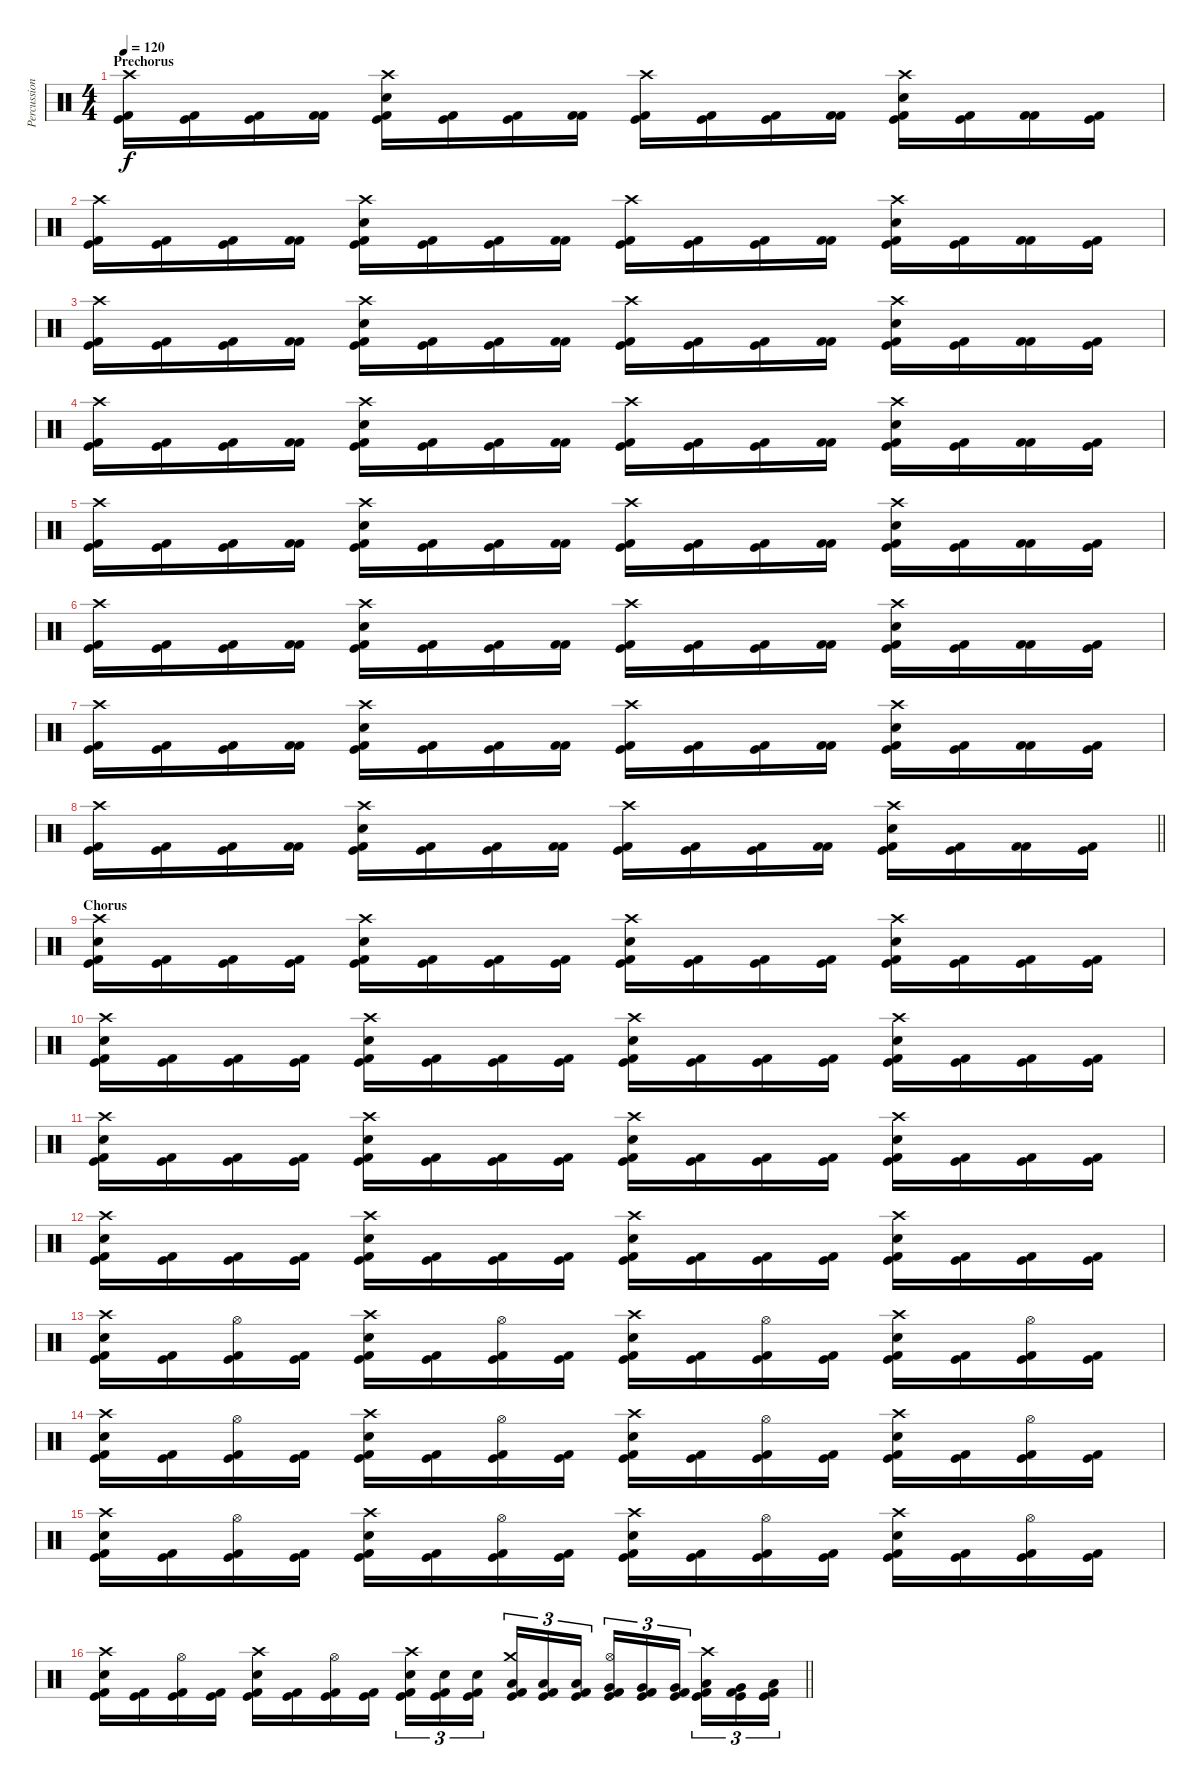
\track ("Percussion" "Percussion") {instrument percussion}
\staff {score}
\articulation defaults
\ts (4 4)
\section ("" "Prechorus")
\tempo 120
\clef neutral
\ks c
("Crash high (hit)" "Kick (hit) 2" "Kick (hit)").16{dy f} ("Kick (hit) 2" "Kick (hit)").16 ("Kick (hit) 2" "Kick (hit)").16 ("Kick (hit) 2" "Kick (hit) 2").16 ("Crash high (hit)" "Electric Snare (hit)" "Kick (hit) 2" "Kick (hit)").16 ("Kick (hit) 2" "Kick (hit)").16 ("Kick (hit) 2" "Kick (hit)").16 ("Kick (hit) 2" "Kick (hit) 2").16 ("Crash high (hit)" "Kick (hit) 2" "Kick (hit)").16 ("Kick (hit) 2" "Kick (hit)").16 ("Kick (hit) 2" "Kick (hit)").16 ("Kick (hit) 2" "Kick (hit) 2").16 ("Crash high (hit)" "Electric Snare (hit)" "Kick (hit) 2" "Kick (hit)").16 ("Kick (hit) 2" "Kick (hit)").16 ("Kick (hit) 2" "Kick (hit) 2").16 ("Kick (hit) 2" "Kick (hit)").16 |
("Crash high (hit)" "Kick (hit) 2" "Kick (hit)").16 ("Kick (hit) 2" "Kick (hit)").16 ("Kick (hit) 2" "Kick (hit)").16 ("Kick (hit) 2" "Kick (hit) 2").16 ("Crash high (hit)" "Electric Snare (hit)" "Kick (hit) 2" "Kick (hit)").16 ("Kick (hit) 2" "Kick (hit)").16 ("Kick (hit) 2" "Kick (hit)").16 ("Kick (hit) 2" "Kick (hit) 2").16 ("Crash high (hit)" "Kick (hit) 2" "Kick (hit)").16 ("Kick (hit) 2" "Kick (hit)").16 ("Kick (hit) 2" "Kick (hit)").16 ("Kick (hit) 2" "Kick (hit) 2").16 ("Crash high (hit)" "Electric Snare (hit)" "Kick (hit) 2" "Kick (hit)").16 ("Kick (hit) 2" "Kick (hit)").16 ("Kick (hit) 2" "Kick (hit) 2").16 ("Kick (hit) 2" "Kick (hit)").16 |
("Crash high (hit)" "Kick (hit) 2" "Kick (hit)").16 ("Kick (hit) 2" "Kick (hit)").16 ("Kick (hit) 2" "Kick (hit)").16 ("Kick (hit) 2" "Kick (hit) 2").16 ("Crash high (hit)" "Electric Snare (hit)" "Kick (hit) 2" "Kick (hit)").16 ("Kick (hit) 2" "Kick (hit)").16 ("Kick (hit) 2" "Kick (hit)").16 ("Kick (hit) 2" "Kick (hit) 2").16 ("Crash high (hit)" "Kick (hit) 2" "Kick (hit)").16 ("Kick (hit) 2" "Kick (hit)").16 ("Kick (hit) 2" "Kick (hit)").16 ("Kick (hit) 2" "Kick (hit) 2").16 ("Crash high (hit)" "Electric Snare (hit)" "Kick (hit) 2" "Kick (hit)").16 ("Kick (hit) 2" "Kick (hit)").16 ("Kick (hit) 2" "Kick (hit) 2").16 ("Kick (hit) 2" "Kick (hit)").16 |
("Crash high (hit)" "Kick (hit) 2" "Kick (hit)").16 ("Kick (hit) 2" "Kick (hit)").16 ("Kick (hit) 2" "Kick (hit)").16 ("Kick (hit) 2" "Kick (hit) 2").16 ("Crash high (hit)" "Electric Snare (hit)" "Kick (hit) 2" "Kick (hit)").16 ("Kick (hit) 2" "Kick (hit)").16 ("Kick (hit) 2" "Kick (hit)").16 ("Kick (hit) 2" "Kick (hit) 2").16 ("Crash high (hit)" "Kick (hit) 2" "Kick (hit)").16 ("Kick (hit) 2" "Kick (hit)").16 ("Kick (hit) 2" "Kick (hit)").16 ("Kick (hit) 2" "Kick (hit) 2").16 ("Crash high (hit)" "Electric Snare (hit)" "Kick (hit) 2" "Kick (hit)").16 ("Kick (hit) 2" "Kick (hit)").16 ("Kick (hit) 2" "Kick (hit) 2").16 ("Kick (hit) 2" "Kick (hit)").16 |
("Crash high (hit)" "Kick (hit) 2" "Kick (hit)").16 ("Kick (hit) 2" "Kick (hit)").16 ("Kick (hit) 2" "Kick (hit)").16 ("Kick (hit) 2" "Kick (hit) 2").16 ("Crash high (hit)" "Electric Snare (hit)" "Kick (hit) 2" "Kick (hit)").16 ("Kick (hit) 2" "Kick (hit)").16 ("Kick (hit) 2" "Kick (hit)").16 ("Kick (hit) 2" "Kick (hit) 2").16 ("Crash high (hit)" "Kick (hit) 2" "Kick (hit)").16 ("Kick (hit) 2" "Kick (hit)").16 ("Kick (hit) 2" "Kick (hit)").16 ("Kick (hit) 2" "Kick (hit) 2").16 ("Crash high (hit)" "Electric Snare (hit)" "Kick (hit) 2" "Kick (hit)").16 ("Kick (hit) 2" "Kick (hit)").16 ("Kick (hit) 2" "Kick (hit) 2").16 ("Kick (hit) 2" "Kick (hit)").16 |
("Crash high (hit)" "Kick (hit) 2" "Kick (hit)").16 ("Kick (hit) 2" "Kick (hit)").16 ("Kick (hit) 2" "Kick (hit)").16 ("Kick (hit) 2" "Kick (hit) 2").16 ("Crash high (hit)" "Electric Snare (hit)" "Kick (hit) 2" "Kick (hit)").16 ("Kick (hit) 2" "Kick (hit)").16 ("Kick (hit) 2" "Kick (hit)").16 ("Kick (hit) 2" "Kick (hit) 2").16 ("Crash high (hit)" "Kick (hit) 2" "Kick (hit)").16 ("Kick (hit) 2" "Kick (hit)").16 ("Kick (hit) 2" "Kick (hit)").16 ("Kick (hit) 2" "Kick (hit) 2").16 ("Crash high (hit)" "Electric Snare (hit)" "Kick (hit) 2" "Kick (hit)").16 ("Kick (hit) 2" "Kick (hit)").16 ("Kick (hit) 2" "Kick (hit) 2").16 ("Kick (hit) 2" "Kick (hit)").16 |
("Crash high (hit)" "Kick (hit) 2" "Kick (hit)").16 ("Kick (hit) 2" "Kick (hit)").16 ("Kick (hit) 2" "Kick (hit)").16 ("Kick (hit) 2" "Kick (hit) 2").16 ("Crash high (hit)" "Electric Snare (hit)" "Kick (hit) 2" "Kick (hit)").16 ("Kick (hit) 2" "Kick (hit)").16 ("Kick (hit) 2" "Kick (hit)").16 ("Kick (hit) 2" "Kick (hit) 2").16 ("Crash high (hit)" "Kick (hit) 2" "Kick (hit)").16 ("Kick (hit) 2" "Kick (hit)").16 ("Kick (hit) 2" "Kick (hit)").16 ("Kick (hit) 2" "Kick (hit) 2").16 ("Crash high (hit)" "Electric Snare (hit)" "Kick (hit) 2" "Kick (hit)").16 ("Kick (hit) 2" "Kick (hit)").16 ("Kick (hit) 2" "Kick (hit) 2").16 ("Kick (hit) 2" "Kick (hit)").16 |
\barLineRight lightlight
("Crash high (hit)" "Kick (hit) 2" "Kick (hit)").16 ("Kick (hit) 2" "Kick (hit)").16 ("Kick (hit) 2" "Kick (hit)").16 ("Kick (hit) 2" "Kick (hit) 2").16 ("Crash high (hit)" "Electric Snare (hit)" "Kick (hit) 2" "Kick (hit)").16 ("Kick (hit) 2" "Kick (hit)").16 ("Kick (hit) 2" "Kick (hit)").16 ("Kick (hit) 2" "Kick (hit) 2").16 ("Crash high (hit)" "Kick (hit) 2" "Kick (hit)").16 ("Kick (hit) 2" "Kick (hit)").16 ("Kick (hit) 2" "Kick (hit)").16 ("Kick (hit) 2" "Kick (hit) 2").16 ("Crash high (hit)" "Electric Snare (hit)" "Kick (hit) 2" "Kick (hit)").16 ("Kick (hit) 2" "Kick (hit)").16 ("Kick (hit) 2" "Kick (hit) 2").16 ("Kick (hit) 2" "Kick (hit)").16 |
\section ("" "Chorus")
("Crash high (hit)" "Electric Snare (hit)" "Kick (hit)" "Kick (hit) 2").16 ("Kick (hit)" "Kick (hit) 2").16 ("Kick (hit)" "Kick (hit) 2").16 ("Kick (hit)" "Kick (hit) 2").16 ("Crash high (hit)" "Electric Snare (hit)" "Kick (hit)" "Kick (hit) 2").16 ("Kick (hit)" "Kick (hit) 2").16 ("Kick (hit)" "Kick (hit) 2").16 ("Kick (hit)" "Kick (hit) 2").16 ("Crash high (hit)" "Electric Snare (hit)" "Kick (hit)" "Kick (hit) 2").16 ("Kick (hit)" "Kick (hit) 2").16 ("Kick (hit)" "Kick (hit) 2").16 ("Kick (hit)" "Kick (hit) 2").16 ("Crash high (hit)" "Electric Snare (hit)" "Kick (hit)" "Kick (hit) 2").16 ("Kick (hit)" "Kick (hit) 2").16 ("Kick (hit)" "Kick (hit) 2").16 ("Kick (hit)" "Kick (hit) 2").16 |
("Crash high (hit)" "Electric Snare (hit)" "Kick (hit)" "Kick (hit) 2").16 ("Kick (hit)" "Kick (hit) 2").16 ("Kick (hit)" "Kick (hit) 2").16 ("Kick (hit)" "Kick (hit) 2").16 ("Crash high (hit)" "Electric Snare (hit)" "Kick (hit)" "Kick (hit) 2").16 ("Kick (hit)" "Kick (hit) 2").16 ("Kick (hit)" "Kick (hit) 2").16 ("Kick (hit)" "Kick (hit) 2").16 ("Crash high (hit)" "Electric Snare (hit)" "Kick (hit)" "Kick (hit) 2").16 ("Kick (hit)" "Kick (hit) 2").16 ("Kick (hit)" "Kick (hit) 2").16 ("Kick (hit)" "Kick (hit) 2").16 ("Crash high (hit)" "Electric Snare (hit)" "Kick (hit)" "Kick (hit) 2").16 ("Kick (hit)" "Kick (hit) 2").16 ("Kick (hit)" "Kick (hit) 2").16 ("Kick (hit)" "Kick (hit) 2").16 |
("Crash high (hit)" "Electric Snare (hit)" "Kick (hit)" "Kick (hit) 2").16 ("Kick (hit)" "Kick (hit) 2").16 ("Kick (hit)" "Kick (hit) 2").16 ("Kick (hit)" "Kick (hit) 2").16 ("Crash high (hit)" "Electric Snare (hit)" "Kick (hit)" "Kick (hit) 2").16 ("Kick (hit)" "Kick (hit) 2").16 ("Kick (hit)" "Kick (hit) 2").16 ("Kick (hit)" "Kick (hit) 2").16 ("Crash high (hit)" "Electric Snare (hit)" "Kick (hit)" "Kick (hit) 2").16 ("Kick (hit)" "Kick (hit) 2").16 ("Kick (hit)" "Kick (hit) 2").16 ("Kick (hit)" "Kick (hit) 2").16 ("Crash high (hit)" "Electric Snare (hit)" "Kick (hit)" "Kick (hit) 2").16 ("Kick (hit)" "Kick (hit) 2").16 ("Kick (hit)" "Kick (hit) 2").16 ("Kick (hit)" "Kick (hit) 2").16 |
("Crash high (hit)" "Electric Snare (hit)" "Kick (hit)" "Kick (hit) 2").16 ("Kick (hit)" "Kick (hit) 2").16 ("Kick (hit)" "Kick (hit) 2").16 ("Kick (hit)" "Kick (hit) 2").16 ("Crash high (hit)" "Electric Snare (hit)" "Kick (hit)" "Kick (hit) 2").16 ("Kick (hit)" "Kick (hit) 2").16 ("Kick (hit)" "Kick (hit) 2").16 ("Kick (hit)" "Kick (hit) 2").16 ("Crash high (hit)" "Electric Snare (hit)" "Kick (hit)" "Kick (hit) 2").16 ("Kick (hit)" "Kick (hit) 2").16 ("Kick (hit)" "Kick (hit) 2").16 ("Kick (hit)" "Kick (hit) 2").16 ("Crash high (hit)" "Electric Snare (hit)" "Kick (hit)" "Kick (hit) 2").16 ("Kick (hit)" "Kick (hit) 2").16 ("Kick (hit)" "Kick (hit) 2").16 ("Kick (hit)" "Kick (hit) 2").16 |
("Crash high (hit)" "Electric Snare (hit)" "Kick (hit)" "Kick (hit) 2").16 ("Kick (hit)" "Kick (hit) 2").16 ("Hi-Hat (open)" "Kick (hit)" "Kick (hit) 2").16 ("Kick (hit)" "Kick (hit) 2").16 ("Crash high (hit)" "Electric Snare (hit)" "Kick (hit)" "Kick (hit) 2").16 ("Kick (hit)" "Kick (hit) 2").16 ("Hi-Hat (open)" "Kick (hit)" "Kick (hit) 2").16 ("Kick (hit)" "Kick (hit) 2").16 ("Crash high (hit)" "Electric Snare (hit)" "Kick (hit)" "Kick (hit) 2").16 ("Kick (hit)" "Kick (hit) 2").16 ("Hi-Hat (open)" "Kick (hit)" "Kick (hit) 2").16 ("Kick (hit)" "Kick (hit) 2").16 ("Crash high (hit)" "Electric Snare (hit)" "Kick (hit)" "Kick (hit) 2").16 ("Kick (hit)" "Kick (hit) 2").16 ("Hi-Hat (open)" "Kick (hit)" "Kick (hit) 2").16 ("Kick (hit)" "Kick (hit) 2").16 |
("Crash high (hit)" "Electric Snare (hit)" "Kick (hit)" "Kick (hit) 2").16 ("Kick (hit)" "Kick (hit) 2").16 ("Hi-Hat (open)" "Kick (hit)" "Kick (hit) 2").16 ("Kick (hit)" "Kick (hit) 2").16 ("Crash high (hit)" "Electric Snare (hit)" "Kick (hit)" "Kick (hit) 2").16 ("Kick (hit)" "Kick (hit) 2").16 ("Hi-Hat (open)" "Kick (hit)" "Kick (hit) 2").16 ("Kick (hit)" "Kick (hit) 2").16 ("Crash high (hit)" "Electric Snare (hit)" "Kick (hit)" "Kick (hit) 2").16 ("Kick (hit)" "Kick (hit) 2").16 ("Hi-Hat (open)" "Kick (hit)" "Kick (hit) 2").16 ("Kick (hit)" "Kick (hit) 2").16 ("Crash high (hit)" "Electric Snare (hit)" "Kick (hit)" "Kick (hit) 2").16 ("Kick (hit)" "Kick (hit) 2").16 ("Hi-Hat (open)" "Kick (hit)" "Kick (hit) 2").16 ("Kick (hit)" "Kick (hit) 2").16 |
("Crash high (hit)" "Electric Snare (hit)" "Kick (hit)" "Kick (hit) 2").16 ("Kick (hit)" "Kick (hit) 2").16 ("Hi-Hat (open)" "Kick (hit)" "Kick (hit) 2").16 ("Kick (hit)" "Kick (hit) 2").16 ("Crash high (hit)" "Electric Snare (hit)" "Kick (hit)" "Kick (hit) 2").16 ("Kick (hit)" "Kick (hit) 2").16 ("Hi-Hat (open)" "Kick (hit)" "Kick (hit) 2").16 ("Kick (hit)" "Kick (hit) 2").16 ("Crash high (hit)" "Electric Snare (hit)" "Kick (hit)" "Kick (hit) 2").16 ("Kick (hit)" "Kick (hit) 2").16 ("Hi-Hat (open)" "Kick (hit)" "Kick (hit) 2").16 ("Kick (hit)" "Kick (hit) 2").16 ("Crash high (hit)" "Electric Snare (hit)" "Kick (hit)" "Kick (hit) 2").16 ("Kick (hit)" "Kick (hit) 2").16 ("Hi-Hat (open)" "Kick (hit)" "Kick (hit) 2").16 ("Kick (hit)" "Kick (hit) 2").16 |
\barLineRight lightlight
("Crash high (hit)" "Electric Snare (hit)" "Kick (hit)" "Kick (hit) 2").16 ("Kick (hit)" "Kick (hit) 2").16 ("Hi-Hat (open)" "Kick (hit)" "Kick (hit) 2").16 ("Kick (hit)" "Kick (hit) 2").16 ("Crash high (hit)" "Electric Snare (hit)" "Kick (hit)" "Kick (hit) 2").16 ("Kick (hit)" "Kick (hit) 2").16 ("Hi-Hat (open)" "Kick (hit)" "Kick (hit) 2").16 ("Kick (hit)" "Kick (hit) 2").16 ("Crash high (hit)" "Electric Snare (hit)" "Kick (hit)" "Kick (hit) 2").16{tu (3 2)} ("Electric Snare (hit)" "Kick (hit)" "Kick (hit) 2").16{tu (3 2)} ("Electric Snare (hit)" "Kick (hit)" "Kick (hit) 2").16{tu (3 2) beam splitsecondary} ("Crash medium (hit)" "Low Tom (hit)" "Kick (hit)" "Kick (hit) 2").16{tu (3 2)} ("Low Tom (hit)" "Kick (hit)" "Kick (hit) 2").16{tu (3 2)} ("Low Tom (hit)" "Kick (hit)" "Kick (hit) 2").16{tu (3 2)} ("Hi-Hat (open)" "Very Low Tom (hit)" "Kick (hit)" "Kick (hit) 2").16{tu (3 2)} ("Very Low Tom (hit)" "Kick (hit)" "Kick (hit) 2").16{tu (3 2)} ("Very Low Tom (hit)" "Kick (hit)" "Kick (hit) 2").16{tu (3 2) beam splitsecondary} ("Crash high (hit)" "Low Tom (hit)" "Kick (hit)" "Kick (hit) 2").16{tu (3 2)} ("Very Low Tom (hit)" "Kick (hit)" "Kick (hit) 2").16{tu (3 2)} ("Low Floor Tom (hit)" "Kick (hit)" "Kick (hit) 2").16{tu (3 2)}
